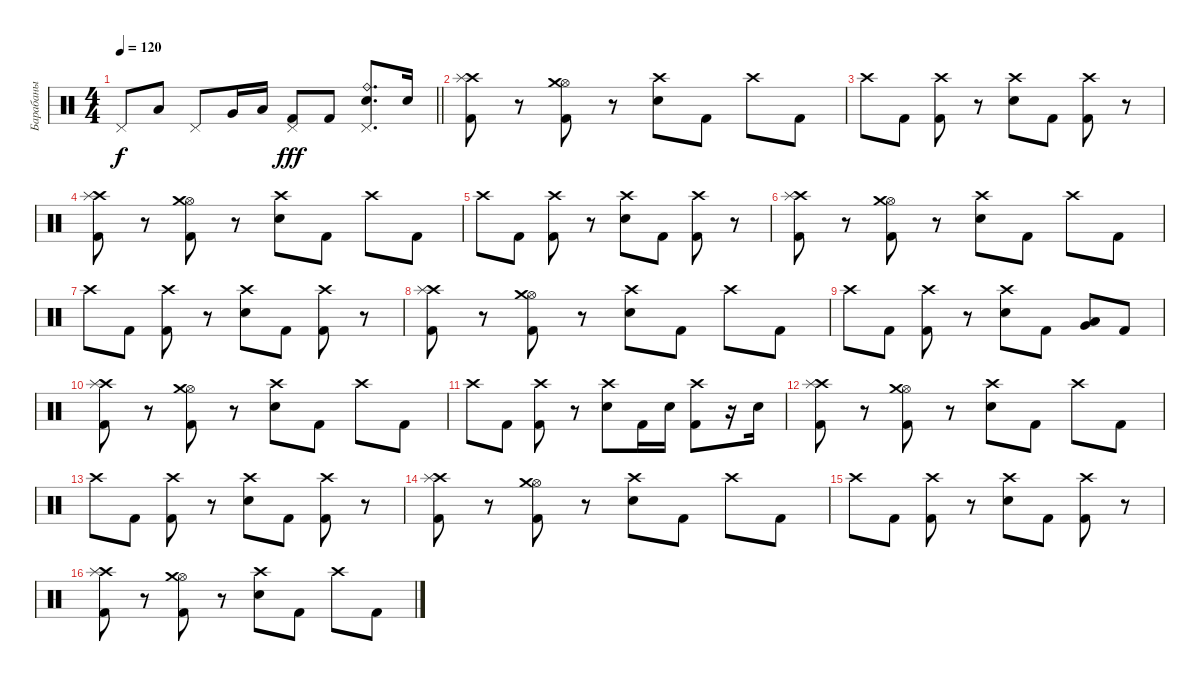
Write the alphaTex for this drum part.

\track ("Барабаны" "Барабаны") {instrument percussion}
\staff {score}
\articulation defaults
\ts (4 4)
\tempo 120
\clef neutral
\barLineRight lightlight
\ks c "Pedal Hi-Hat (hit)".8{dy f} "Low Tom (hit)".8 "Pedal Hi-Hat (hit)".8 "Very Low Tom (hit)".16 "Low Floor Tom (hit)".16
("Kick (hit) 2" "Pedal Hi-Hat (hit)").8{dy fff} "Kick (hit) 2".8 ("Snare (hit) 2" "Pedal Hi-Hat (hit)" "Ride (bell)").8{d} "Snare (hit) 2".16 |
\section ("" " ")
("Kick (hit) 2" "Crash high (hit)" "Splash (hit)").8 r.8 ("Kick (hit) 2" "Hi-Hat (open)" "Crash medium (hit)").8 r.8 ("Snare (hit) 2" "Crash high (hit)").8 "Kick (hit) 2".8 "Crash high (hit)".8 "Kick (hit) 2".8 |
"Crash high (hit)".8 "Kick (hit) 2".8 ("Kick (hit) 2" "Crash high (hit)").8 r.8 ("Snare (hit) 2" "Crash high (hit)").8 "Kick (hit) 2".8 ("Kick (hit) 2" "Crash high (hit)").8 r.8 |
("Kick (hit) 2" "Crash high (hit)" "Splash (hit)").8 r.8 ("Kick (hit) 2" "Hi-Hat (open)" "Crash medium (hit)").8 r.8 ("Snare (hit) 2" "Crash high (hit)").8 "Kick (hit) 2".8 "Crash high (hit)".8 "Kick (hit) 2".8 |
"Crash high (hit)".8 "Kick (hit) 2".8 ("Kick (hit) 2" "Crash high (hit)").8 r.8 ("Snare (hit) 2" "Crash high (hit)").8 "Kick (hit) 2".8 ("Kick (hit) 2" "Crash high (hit)").8 r.8 |
("Kick (hit) 2" "Crash high (hit)" "Splash (hit)").8 r.8 ("Kick (hit) 2" "Hi-Hat (open)" "Crash medium (hit)").8 r.8 ("Snare (hit) 2" "Crash high (hit)").8 "Kick (hit) 2".8 "Crash high (hit)".8 "Kick (hit) 2".8 |
"Crash high (hit)".8 "Kick (hit) 2".8 ("Kick (hit) 2" "Crash high (hit)").8 r.8 ("Snare (hit) 2" "Crash high (hit)").8 "Kick (hit) 2".8 ("Kick (hit) 2" "Crash high (hit)").8 r.8 |
("Kick (hit) 2" "Crash high (hit)" "Splash (hit)").8 r.8 ("Kick (hit) 2" "Hi-Hat (open)" "Crash medium (hit)").8 r.8 ("Snare (hit) 2" "Crash high (hit)").8 "Kick (hit) 2".8 "Crash high (hit)".8 "Kick (hit) 2".8 |
"Crash high (hit)".8 "Kick (hit) 2".8 ("Kick (hit) 2" "Crash high (hit)").8 r.8 ("Snare (hit) 2" "Crash high (hit)").8 "Kick (hit) 2".8 ("Low Floor Tom (hit)" "Very Low Tom (hit)").8 "Kick (hit) 2".8 |
("Kick (hit) 2" "Crash high (hit)" "Splash (hit)").8 r.8 ("Kick (hit) 2" "Hi-Hat (open)" "Crash medium (hit)").8 r.8 ("Snare (hit) 2" "Crash high (hit)").8 "Kick (hit) 2".8 "Crash high (hit)".8 "Kick (hit) 2".8 |
"Crash high (hit)".8 "Kick (hit) 2".8 ("Kick (hit) 2" "Crash high (hit)").8 r.8 ("Snare (hit) 2" "Crash high (hit)").8 "Kick (hit) 2".16 "Snare (hit) 2".16 ("Kick (hit) 2" "Crash high (hit)").8 r.16 "Snare (hit) 2".16 |
("Kick (hit) 2" "Crash high (hit)" "Splash (hit)").8 r.8 ("Kick (hit) 2" "Hi-Hat (open)" "Crash medium (hit)").8 r.8 ("Snare (hit) 2" "Crash high (hit)").8 "Kick (hit) 2".8 "Crash high (hit)".8 "Kick (hit) 2".8 |
"Crash high (hit)".8 "Kick (hit) 2".8 ("Kick (hit) 2" "Crash high (hit)").8 r.8 ("Snare (hit) 2" "Crash high (hit)").8 "Kick (hit) 2".8 ("Kick (hit) 2" "Crash high (hit)").8 r.8 |
("Kick (hit) 2" "Crash high (hit)" "Splash (hit)").8 r.8 ("Kick (hit) 2" "Hi-Hat (open)" "Crash medium (hit)").8 r.8 ("Snare (hit) 2" "Crash high (hit)").8 "Kick (hit) 2".8 "Crash high (hit)".8 "Kick (hit) 2".8 |
"Crash high (hit)".8 "Kick (hit) 2".8 ("Kick (hit) 2" "Crash high (hit)").8 r.8 ("Snare (hit) 2" "Crash high (hit)").8 "Kick (hit) 2".8 ("Kick (hit) 2" "Crash high (hit)").8 r.8 |
("Kick (hit) 2" "Crash high (hit)" "Splash (hit)").8 r.8 ("Kick (hit) 2" "Hi-Hat (open)" "Crash medium (hit)").8 r.8 ("Snare (hit) 2" "Crash high (hit)").8 "Kick (hit) 2".8 "Crash high (hit)".8 "Kick (hit) 2".8
